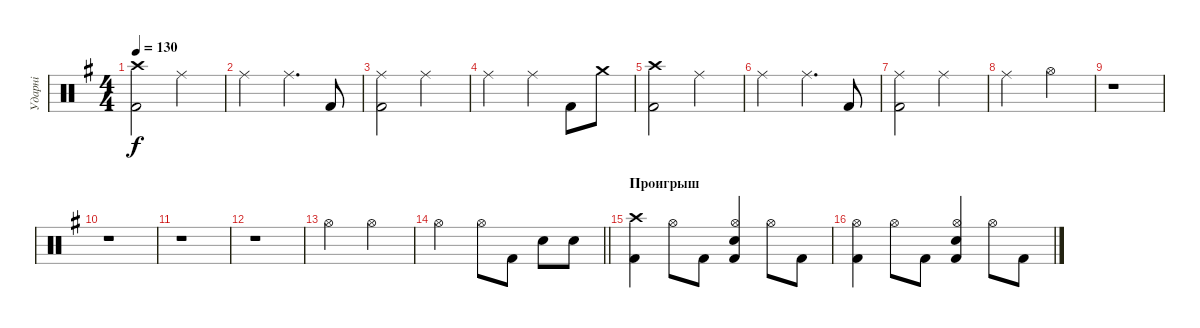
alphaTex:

\track ("Ударні" "Ударні") {instrument percussion}
\staff {score}
\articulation defaults
\ts (4 4)
\tempo 130
\clef neutral
\ks eminor
("Kick (hit) 2" "Crash high (hit)").2{dy f} "Ride (middle)".2 |
"Ride (middle)".2 "Ride (middle)".4{d} "Kick (hit) 2".8 |
("Kick (hit) 2" "Ride (middle)").2 "Ride (middle)".2 |
"Ride (middle)".2 "Ride (middle)".4 "Kick (hit) 2".8 "Crash medium (hit)".8 |
("Kick (hit) 2" "Crash high (hit)").2 "Ride (middle)".2 |
"Ride (middle)".2 "Ride (middle)".4{d} "Kick (hit) 2".8 |
("Kick (hit) 2" "Ride (middle)").2 "Ride (middle)".2 |
"Ride (middle)".2 "Hi-Hat (open)".2 |
r.1 |
r.1 |
r.1 |
r.1 |
"Hi-Hat (open)".2 "Hi-Hat (open)".2 |
\barLineRight lightlight "Hi-Hat (open)".2 "Hi-Hat (open)".8 "Kick (hit) 2".8 "Snare (hit) 2".8 "Snare (hit) 2".8
|
\section ("" "Проигрыш")
("Kick (hit) 2" "Crash high (hit)").4 "Hi-Hat (open)".8 "Kick (hit) 2".8 ("Kick (hit) 2" "Snare (hit) 2" "Hi-Hat (open)").4 "Hi-Hat (open)".8 "Kick (hit) 2".8 |
("Kick (hit) 2" "Hi-Hat (open)").4 "Hi-Hat (open)".8 "Kick (hit) 2".8 ("Kick (hit) 2" "Snare (hit) 2" "Hi-Hat (open)").4 "Hi-Hat (open)".8 "Kick (hit) 2".8
